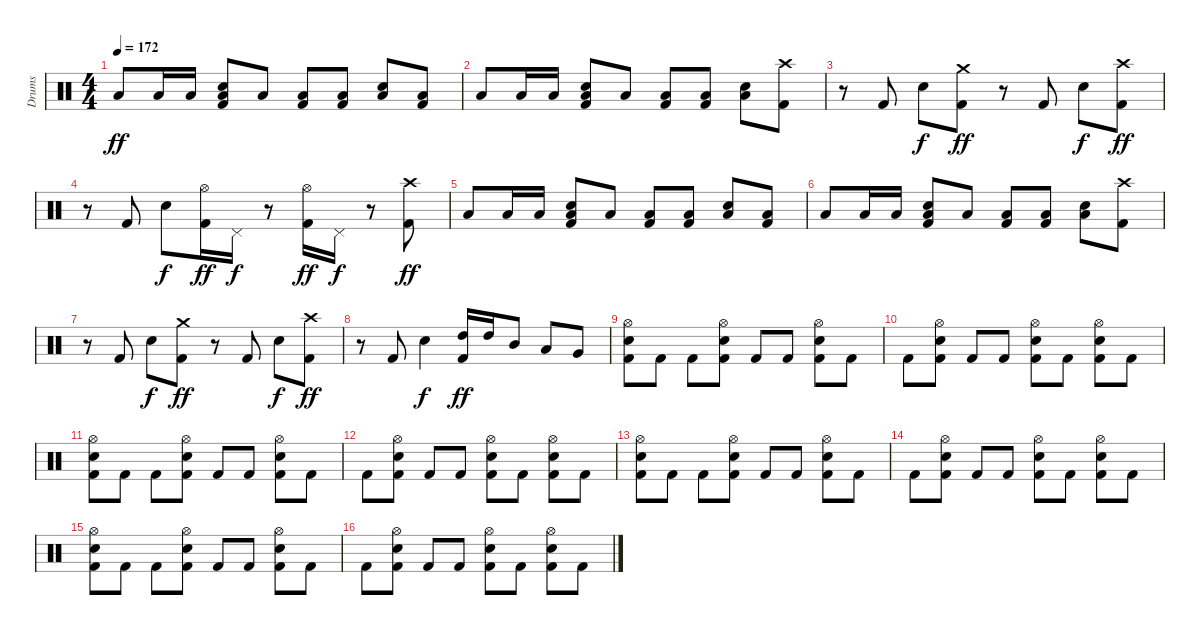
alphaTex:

\track ("Drums" "Drums") {instrument percussion}
\staff {score}
\articulation defaults
\ts (4 4)
\tempo 172
\clef neutral
\ks c "Low Tom (hit)".8{dy ff} "Low Tom (hit)".16 "Low Tom (hit)".16
("Electric Snare (hit)" "Low Tom (hit)" "Kick (hit) 2").8 "Low Tom (hit)".8 ("Low Tom (hit)" "Kick (hit) 2").8 ("Low Tom (hit)" "Kick (hit) 2").8 ("Electric Snare (hit)" "Low Tom (hit)").8 ("Low Tom (hit)" "Kick (hit) 2").8 |
"Low Tom (hit)".8 "Low Tom (hit)".16 "Low Tom (hit)".16 ("Electric Snare (hit)" "Low Tom (hit)" "Kick (hit) 2").8 "Low Tom (hit)".8 ("Low Tom (hit)" "Kick (hit) 2").8 ("Low Tom (hit)" "Kick (hit) 2").8 ("Electric Snare (hit)" "Low Tom (hit)").8 ("Crash high (hit)" "Kick (hit) 2").8 |
r.8 "Kick (hit) 2".8 "Electric Snare (hit)".8{dy f} ("Crash medium (hit)" "Kick (hit) 2").8{dy ff} r.8 "Kick (hit) 2".8 "Electric Snare (hit)".8{dy f} ("Crash high (hit)" "Kick (hit) 2").8{dy ff} |
r.8 "Kick (hit) 2".8 "Electric Snare (hit)".8{dy f} ("Hi-Hat (open)" "Kick (hit) 2").16{dy ff} "Pedal Hi-Hat (hit)".16{dy f} r.8 ("Hi-Hat (open)" "Kick (hit) 2").16{dy ff} "Pedal Hi-Hat (hit)".16{dy f} r.8 ("Crash high (hit)" "Kick (hit) 2").8{dy ff} |
"Low Tom (hit)".8 "Low Tom (hit)".16 "Low Tom (hit)".16 ("Electric Snare (hit)" "Low Tom (hit)" "Kick (hit) 2").8 "Low Tom (hit)".8 ("Low Tom (hit)" "Kick (hit) 2").8 ("Low Tom (hit)" "Kick (hit) 2").8 ("Electric Snare (hit)" "Low Tom (hit)").8 ("Low Tom (hit)" "Kick (hit) 2").8 |
"Low Tom (hit)".8 "Low Tom (hit)".16 "Low Tom (hit)".16 ("Electric Snare (hit)" "Low Tom (hit)" "Kick (hit) 2").8 "Low Tom (hit)".8 ("Low Tom (hit)" "Kick (hit) 2").8 ("Low Tom (hit)" "Kick (hit) 2").8 ("Electric Snare (hit)" "Low Tom (hit)").8 ("Crash high (hit)" "Kick (hit) 2").8 |
r.8 "Kick (hit) 2".8 "Electric Snare (hit)".8{dy f} ("Crash medium (hit)" "Kick (hit) 2").8{dy ff} r.8 "Kick (hit) 2".8 "Electric Snare (hit)".8{dy f} ("Crash high (hit)" "Kick (hit) 2").8{dy ff} |
r.8 "Kick (hit) 2".8 "Electric Snare (hit)".4{dy f} ("High Tom (hit)" "Kick (hit) 2").16{dy ff} "High Tom (hit)".16 "Mid Tom (hit)".8 "Low Tom (hit)".8 "Very Low Tom (hit)".8 |
("Hi-Hat (open)" "Electric Snare (hit)" "Kick (hit) 2").8 "Kick (hit) 2".8 "Kick (hit) 2".8 ("Hi-Hat (open)" "Electric Snare (hit)" "Kick (hit) 2").8 "Kick (hit) 2".8 "Kick (hit) 2".8 ("Hi-Hat (open)" "Electric Snare (hit)" "Kick (hit) 2").8 "Kick (hit) 2".8 |
"Kick (hit) 2".8 ("Hi-Hat (open)" "Electric Snare (hit)" "Kick (hit) 2").8 "Kick (hit) 2".8 "Kick (hit) 2".8 ("Hi-Hat (open)" "Electric Snare (hit)" "Kick (hit) 2").8 "Kick (hit) 2".8 ("Hi-Hat (open)" "Electric Snare (hit)" "Kick (hit) 2").8 "Kick (hit) 2".8 |
("Hi-Hat (open)" "Electric Snare (hit)" "Kick (hit) 2").8 "Kick (hit) 2".8 "Kick (hit) 2".8 ("Hi-Hat (open)" "Electric Snare (hit)" "Kick (hit) 2").8 "Kick (hit) 2".8 "Kick (hit) 2".8 ("Hi-Hat (open)" "Electric Snare (hit)" "Kick (hit) 2").8 "Kick (hit) 2".8 |
"Kick (hit) 2".8 ("Hi-Hat (open)" "Electric Snare (hit)" "Kick (hit) 2").8 "Kick (hit) 2".8 "Kick (hit) 2".8 ("Hi-Hat (open)" "Electric Snare (hit)" "Kick (hit) 2").8 "Kick (hit) 2".8 ("Hi-Hat (open)" "Electric Snare (hit)" "Kick (hit) 2").8 "Kick (hit) 2".8 |
("Hi-Hat (open)" "Electric Snare (hit)" "Kick (hit) 2").8 "Kick (hit) 2".8 "Kick (hit) 2".8 ("Hi-Hat (open)" "Electric Snare (hit)" "Kick (hit) 2").8 "Kick (hit) 2".8 "Kick (hit) 2".8 ("Hi-Hat (open)" "Electric Snare (hit)" "Kick (hit) 2").8 "Kick (hit) 2".8 |
"Kick (hit) 2".8 ("Hi-Hat (open)" "Electric Snare (hit)" "Kick (hit) 2").8 "Kick (hit) 2".8 "Kick (hit) 2".8 ("Hi-Hat (open)" "Electric Snare (hit)" "Kick (hit) 2").8 "Kick (hit) 2".8 ("Hi-Hat (open)" "Electric Snare (hit)" "Kick (hit) 2").8 "Kick (hit) 2".8 |
("Hi-Hat (open)" "Electric Snare (hit)" "Kick (hit) 2").8 "Kick (hit) 2".8 "Kick (hit) 2".8 ("Hi-Hat (open)" "Electric Snare (hit)" "Kick (hit) 2").8 "Kick (hit) 2".8 "Kick (hit) 2".8 ("Hi-Hat (open)" "Electric Snare (hit)" "Kick (hit) 2").8 "Kick (hit) 2".8 |
"Kick (hit) 2".8 ("Hi-Hat (open)" "Electric Snare (hit)" "Kick (hit) 2").8 "Kick (hit) 2".8 "Kick (hit) 2".8 ("Hi-Hat (open)" "Electric Snare (hit)" "Kick (hit) 2").8 "Kick (hit) 2".8 ("Hi-Hat (open)" "Electric Snare (hit)" "Kick (hit) 2").8 "Kick (hit) 2".8
